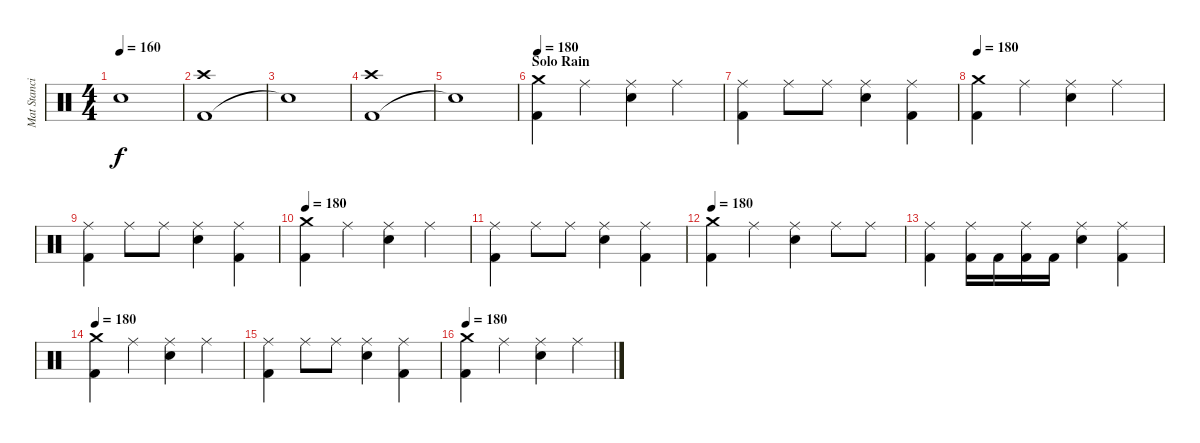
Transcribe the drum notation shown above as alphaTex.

\track ("Mat Stancioiu" "Mat Stanci") {instrument percussion}
\staff {score}
\articulation defaults
\ts (4 4)
\tempo 160
\clef neutral
\ks c "Snare (hit)"{t}.1{dy f}
|
("Kick (hit) 2" "Crash high (hit)").1 |
"Snare (hit)"{t}.1 |
("Kick (hit) 2" "Crash high (hit)").1 |
"Snare (hit)"{t}.1 |
\section ("" "Solo Rain")
\tempo 180
("Kick (hit) 2" "Crash medium (hit)").4 "Ride (middle)".4 ("Electric Snare (hit)" "Ride (middle)").4 "Ride (middle)".4 |
("Kick (hit) 2" "Ride (middle)").4 "Ride (middle)".8 "Ride (middle)".8 ("Electric Snare (hit)" "Ride (middle)").4 ("Kick (hit) 2" "Ride (middle)").4 |
\tempo 180
("Kick (hit) 2" "Crash medium (hit)").4 "Ride (middle)".4 ("Electric Snare (hit)" "Ride (middle)").4 "Ride (middle)".4 |
("Kick (hit) 2" "Ride (middle)").4 "Ride (middle)".8 "Ride (middle)".8 ("Electric Snare (hit)" "Ride (middle)").4 ("Kick (hit) 2" "Ride (middle)").4 |
\tempo 180
("Kick (hit) 2" "Crash medium (hit)").4 "Ride (middle)".4 ("Electric Snare (hit)" "Ride (middle)").4 "Ride (middle)".4 |
("Kick (hit) 2" "Ride (middle)").4 "Ride (middle)".8 "Ride (middle)".8 ("Electric Snare (hit)" "Ride (middle)").4 ("Kick (hit) 2" "Ride (middle)").4 |
\tempo 180
("Kick (hit) 2" "Crash medium (hit)").4 "Ride (middle)".4 ("Electric Snare (hit)" "Ride (middle)").4 "Ride (middle)".8 "Ride (middle)".8 |
("Kick (hit) 2" "Ride (middle)").4 ("Kick (hit) 2" "Ride (middle)").16 "Kick (hit) 2".16 ("Kick (hit) 2" "Ride (middle)").16 "Kick (hit) 2".16 ("Electric Snare (hit)" "Ride (middle)").4 ("Kick (hit) 2" "Ride (middle)").4 |
\tempo 180
("Kick (hit) 2" "Crash medium (hit)").4 "Ride (middle)".4 ("Electric Snare (hit)" "Ride (middle)").4 "Ride (middle)".4 |
("Kick (hit) 2" "Ride (middle)").4 "Ride (middle)".8 "Ride (middle)".8 ("Electric Snare (hit)" "Ride (middle)").4 ("Kick (hit) 2" "Ride (middle)").4 |
\tempo 180
("Kick (hit) 2" "Crash medium (hit)").4 "Ride (middle)".4 ("Electric Snare (hit)" "Ride (middle)").4 "Ride (middle)".4
